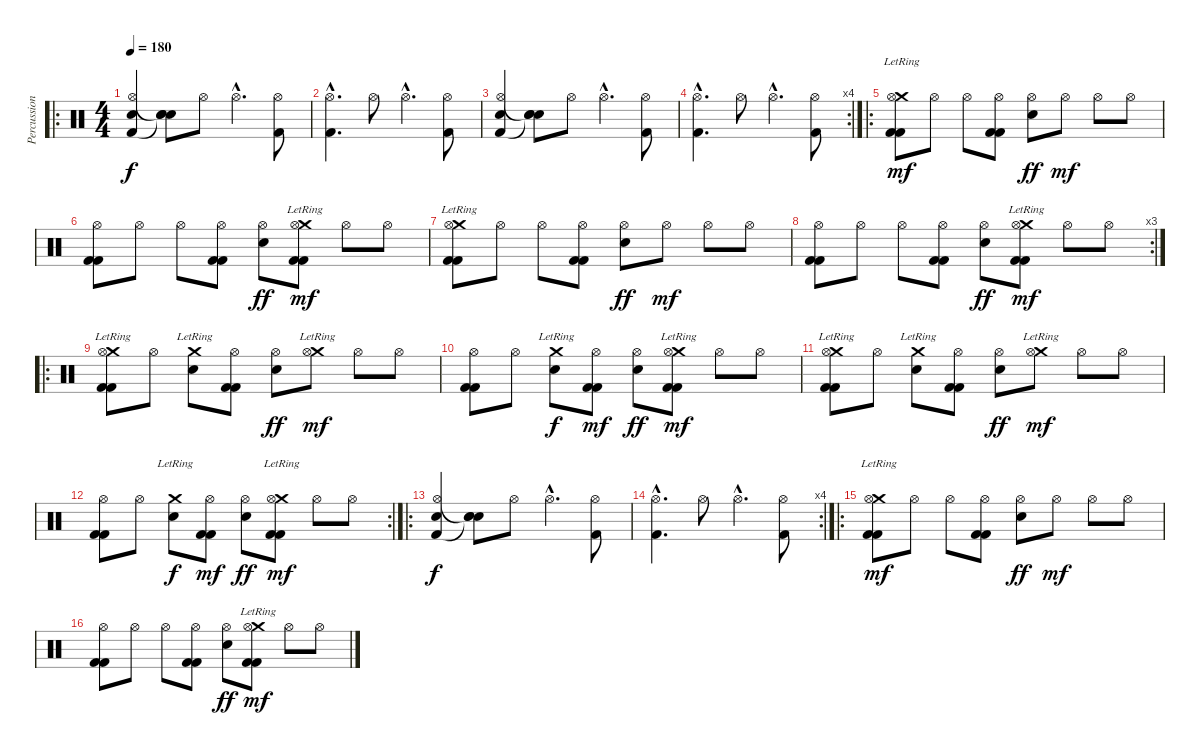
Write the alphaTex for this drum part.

\track ("Percussioni" "Percussion") {instrument percussion}
\staff {score}
\articulation defaults
\ro
\ts (4 4)
\tempo 180
\clef neutral
\ks c
("Snare (hit) 2" "Hi-Hat (open)" "Kick (hit) 2").4{dy f} ("Snare (hit) 2" "Snare (hit)"{t} "Snare (hit)"{t}).8 "Hi-Hat (open)".8 "Hi-Hat (open)"{hac}.4{d} ("Hi-Hat (open)" "Kick (hit) 2").8 |
("Hi-Hat (open)"{hac} "Kick (hit) 2"{hac}).4{d} "Hi-Hat (open)".8 "Hi-Hat (open)"{hac}.4{d} ("Hi-Hat (open)" "Kick (hit) 2").8 |
("Snare (hit) 2" "Hi-Hat (open)" "Kick (hit) 2").4 ("Snare (hit) 2" "Snare (hit)"{t} "Snare (hit)"{t}).8 "Hi-Hat (open)".8 "Hi-Hat (open)"{hac}.4{d} ("Hi-Hat (open)" "Kick (hit) 2").8 |
\rc 4
("Hi-Hat (open)"{hac} "Kick (hit) 2"{hac}).4{d} "Hi-Hat (open)".8 "Hi-Hat (open)"{hac}.4{d} ("Hi-Hat (open)" "Kick (hit) 2").8 |
\ro
("Crash medium (hit)"{lr} "Hi-Hat (open)" "Kick (hit) 2" "Kick (hit) 2").8{dy mf} "Hi-Hat (open)".8 "Hi-Hat (open)".8 ("Hi-Hat (open)" "Kick (hit) 2" "Kick (hit) 2").8 ("Hi-Hat (open)" "Snare (hit) 2").8{dy ff} "Hi-Hat (open)".8{dy mf} "Hi-Hat (open)".8 "Hi-Hat (open)".8 |
("Hi-Hat (open)" "Kick (hit) 2" "Kick (hit) 2").8 "Hi-Hat (open)".8 "Hi-Hat (open)".8 ("Hi-Hat (open)" "Kick (hit) 2" "Kick (hit) 2").8 ("Hi-Hat (open)" "Snare (hit) 2").8{dy ff} ("Crash medium (hit)"{lr} "Hi-Hat (open)" "Kick (hit) 2" "Kick (hit) 2").8{dy mf} "Hi-Hat (open)".8 "Hi-Hat (open)".8 |
("Crash medium (hit)"{lr} "Hi-Hat (open)" "Kick (hit) 2" "Kick (hit) 2").8 "Hi-Hat (open)".8 "Hi-Hat (open)".8 ("Hi-Hat (open)" "Kick (hit) 2" "Kick (hit) 2").8 ("Hi-Hat (open)" "Snare (hit) 2").8{dy ff} "Hi-Hat (open)".8{dy mf} "Hi-Hat (open)".8 "Hi-Hat (open)".8 |
\rc 3
("Hi-Hat (open)" "Kick (hit) 2" "Kick (hit) 2").8 "Hi-Hat (open)".8 "Hi-Hat (open)".8 ("Hi-Hat (open)" "Kick (hit) 2" "Kick (hit) 2").8 ("Hi-Hat (open)" "Snare (hit) 2").8{dy ff} ("Crash medium (hit)"{lr} "Hi-Hat (open)" "Kick (hit) 2" "Kick (hit) 2").8{dy mf} "Hi-Hat (open)".8 "Hi-Hat (open)".8 |
\ro
("Crash medium (hit)"{lr} "Hi-Hat (open)" "Kick (hit) 2" "Kick (hit) 2").8 "Hi-Hat (open)".8 ("Crash medium (hit)"{lr} "Snare (hit) 2").8 ("Hi-Hat (open)" "Kick (hit) 2" "Kick (hit) 2").8 ("Hi-Hat (open)" "Snare (hit) 2").8{dy ff} ("Crash medium (hit)"{lr} "Hi-Hat (open)").8{dy mf} "Hi-Hat (open)".8 "Hi-Hat (open)".8 |
("Hi-Hat (open)" "Kick (hit) 2" "Kick (hit) 2").8 "Hi-Hat (open)".8 ("Crash medium (hit)"{lr} "Snare (hit) 2").8{dy f} ("Hi-Hat (open)" "Kick (hit) 2" "Kick (hit) 2").8{dy mf} ("Hi-Hat (open)" "Snare (hit) 2").8{dy ff} ("Crash medium (hit)"{lr} "Hi-Hat (open)" "Kick (hit) 2" "Kick (hit) 2").8{dy mf} "Hi-Hat (open)".8 "Hi-Hat (open)".8 |
("Crash medium (hit)"{lr} "Hi-Hat (open)" "Kick (hit) 2" "Kick (hit) 2").8 "Hi-Hat (open)".8 ("Crash medium (hit)"{lr} "Snare (hit) 2").8 ("Hi-Hat (open)" "Kick (hit) 2" "Kick (hit) 2").8 ("Hi-Hat (open)" "Snare (hit) 2").8{dy ff} ("Crash medium (hit)"{lr} "Hi-Hat (open)").8{dy mf} "Hi-Hat (open)".8 "Hi-Hat (open)".8 |
\rc 2
("Hi-Hat (open)" "Kick (hit) 2" "Kick (hit) 2").8 "Hi-Hat (open)".8 ("Crash medium (hit)"{lr} "Snare (hit) 2").8{dy f} ("Hi-Hat (open)" "Kick (hit) 2" "Kick (hit) 2").8{dy mf} ("Hi-Hat (open)" "Snare (hit) 2").8{dy ff} ("Crash medium (hit)"{lr} "Hi-Hat (open)" "Kick (hit) 2" "Kick (hit) 2").8{dy mf} "Hi-Hat (open)".8 "Hi-Hat (open)".8 |
\ro
("Snare (hit) 2" "Hi-Hat (open)" "Kick (hit) 2").4{dy f} ("Snare (hit) 2" "Snare (hit)"{t} "Snare (hit)"{t}).8 "Hi-Hat (open)".8 "Hi-Hat (open)"{hac}.4{d} ("Hi-Hat (open)" "Kick (hit) 2").8 |
\rc 4
("Hi-Hat (open)"{hac} "Kick (hit) 2"{hac}).4{d} "Hi-Hat (open)".8 "Hi-Hat (open)"{hac}.4{d} ("Hi-Hat (open)" "Kick (hit) 2").8 |
\ro
("Crash medium (hit)"{lr} "Hi-Hat (open)" "Kick (hit) 2" "Kick (hit) 2").8{dy mf} "Hi-Hat (open)".8 "Hi-Hat (open)".8 ("Hi-Hat (open)" "Kick (hit) 2" "Kick (hit) 2").8 ("Hi-Hat (open)" "Snare (hit) 2").8{dy ff} "Hi-Hat (open)".8{dy mf} "Hi-Hat (open)".8 "Hi-Hat (open)".8 |
("Hi-Hat (open)" "Kick (hit) 2" "Kick (hit) 2").8 "Hi-Hat (open)".8 "Hi-Hat (open)".8 ("Hi-Hat (open)" "Kick (hit) 2" "Kick (hit) 2").8 ("Hi-Hat (open)" "Snare (hit) 2").8{dy ff} ("Crash medium (hit)"{lr} "Hi-Hat (open)" "Kick (hit) 2" "Kick (hit) 2").8{dy mf} "Hi-Hat (open)".8 "Hi-Hat (open)".8
